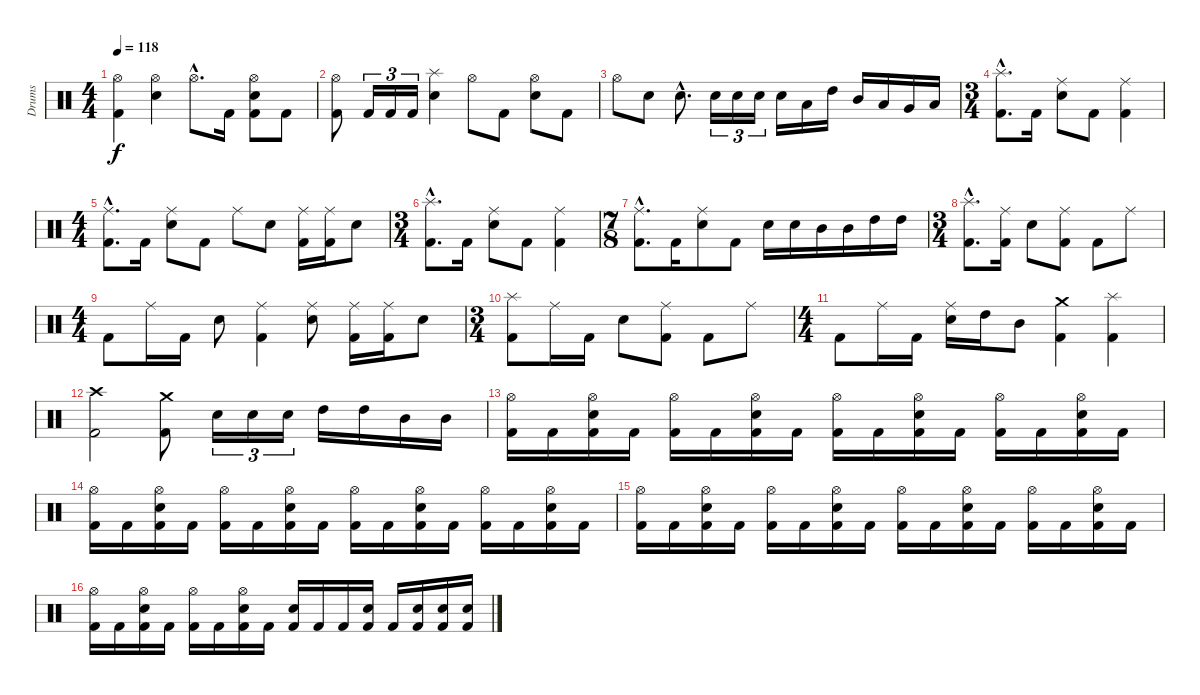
\track ("Drums" "Drums") {instrument percussion}
\staff {score}
\articulation defaults
\ts (4 4)
\tempo 118
\clef neutral
\ks c
("Hi-Hat (open)" "Kick (hit) 2").4{dy f} ("Hi-Hat (open)" "Snare (hit) 2").4 "Hi-Hat (open)"{hac}.8{d} "Kick (hit) 2".16 ("Hi-Hat (open)" "Snare (hit) 2" "Kick (hit) 2").8 "Kick (hit) 2".8 |
("Hi-Hat (open)" "Kick (hit) 2").8 "Kick (hit) 2".16{tu (3 2)} "Kick (hit) 2".16{tu (3 2)} "Kick (hit) 2".16{tu (3 2)} ("Splash (hit)" "Snare (hit) 2").4 "Hi-Hat (open)".8 "Kick (hit) 2".8 ("Hi-Hat (open)" "Snare (hit) 2").8 "Kick (hit) 2".8 |
"Hi-Hat (open)".8 "Snare (hit) 2".8 "Snare (hit) 2"{hac}.8{d} "Snare (hit) 2".16{tu (3 2)} "Snare (hit) 2".16{tu (3 2)} "Snare (hit) 2".16{tu (3 2)} "Snare (hit) 2".16 "Low Tom (hit)".16 "High Tom (hit)".16 "Mid Tom (hit)".16 "Low Tom (hit)".16 "Very Low Tom (hit)".16 "Low Floor Tom (hit)".16 |
\ts (3 4)
("Splash (hit)"{hac} "Kick (hit) 2"{hac}).8{d} "Kick (hit) 2".16 ("Ride (middle)" "Snare (hit) 2").8 "Kick (hit) 2".8 ("Ride (middle)" "Kick (hit) 2").4 |
\ts (4 4)
("Ride (middle)"{hac} "Kick (hit) 2"{hac}).8{d} "Kick (hit) 2".16 ("Ride (middle)" "Snare (hit) 2").8 "Kick (hit) 2".8 "Ride (middle)".8 "Snare (hit) 2".8 ("Ride (middle)" "Kick (hit) 2").16 ("Ride (middle)" "Kick (hit) 2").16 "Snare (hit) 2".8 |
\ts (3 4)
("Splash (hit)"{hac} "Kick (hit) 2"{hac}).8{d} "Kick (hit) 2".16 ("Ride (middle)" "Snare (hit) 2").8 "Kick (hit) 2".8 ("Ride (middle)" "Kick (hit) 2").4 |
\ts (7 8)
("Ride (middle)"{hac} "Kick (hit) 2"{hac}).8{d} "Kick (hit) 2".16 ("Ride (middle)" "Snare (hit) 2").8 "Kick (hit) 2".8 "Snare (hit) 2".16 "Snare (hit) 2".16 "Mid Tom (hit)".16 "Mid Tom (hit)".16 "High Tom (hit)".16 "High Tom (hit)".16 |
\ts (3 4)
("Splash (hit)"{hac} "Kick (hit) 2"{hac}).8{d} ("Ride (middle)" "Kick (hit) 2").16 "Snare (hit) 2".8 ("Ride (middle)" "Kick (hit) 2").8 "Kick (hit) 2".8 "Ride (middle)".8 |
\ts (4 4)
"Kick (hit) 2".8 "Ride (middle)".16 "Kick (hit) 2".16 "Snare (hit) 2".8 ("Ride (middle)" "Kick (hit) 2").4 ("Ride (middle)" "Snare (hit) 2").8 ("Ride (middle)" "Kick (hit) 2").16 ("Ride (middle)" "Kick (hit) 2").16 "Snare (hit) 2".8 |
\ts (3 4)
("Splash (hit)" "Kick (hit) 2").8 "Ride (middle)".16 "Kick (hit) 2".16 "Snare (hit) 2".8 ("Ride (middle)" "Kick (hit) 2").8 "Kick (hit) 2".8 "Ride (middle)".8 |
\ts (4 4)
"Kick (hit) 2".8 "Ride (middle)".16 "Kick (hit) 2".16 ("Ride (middle)" "Snare (hit) 2").16 "High Tom (hit)".16 "Mid Tom (hit)".8 ("Crash medium (hit)" "Kick (hit) 2").4 ("Splash (hit)" "Kick (hit) 2").4 |
("Crash high (hit)" "Kick (hit) 2").2 ("Crash medium (hit)" "Kick (hit) 2").8 "Snare (hit) 2".16{tu (3 2)} "Snare (hit) 2".16{tu (3 2)} "Snare (hit) 2".16{tu (3 2)} "High Tom (hit)".16 "High Tom (hit)".16 "Mid Tom (hit)".16 "Mid Tom (hit)".16 |
("Hi-Hat (open)" "Kick (hit) 2").16 "Kick (hit) 2".16 ("Hi-Hat (open)" "Snare (hit) 2" "Kick (hit) 2").16 "Kick (hit) 2".16 ("Hi-Hat (open)" "Kick (hit) 2").16 "Kick (hit) 2".16 ("Hi-Hat (open)" "Snare (hit) 2" "Kick (hit) 2").16 "Kick (hit) 2".16 ("Hi-Hat (open)" "Kick (hit) 2").16 "Kick (hit) 2".16 ("Hi-Hat (open)" "Snare (hit) 2" "Kick (hit) 2").16 "Kick (hit) 2".16 ("Hi-Hat (open)" "Kick (hit) 2").16 "Kick (hit) 2".16 ("Hi-Hat (open)" "Snare (hit) 2" "Kick (hit) 2").16 "Kick (hit) 2".16 |
("Hi-Hat (open)" "Kick (hit) 2").16 "Kick (hit) 2".16 ("Hi-Hat (open)" "Snare (hit) 2" "Kick (hit) 2").16 "Kick (hit) 2".16 ("Hi-Hat (open)" "Kick (hit) 2").16 "Kick (hit) 2".16 ("Hi-Hat (open)" "Snare (hit) 2" "Kick (hit) 2").16 "Kick (hit) 2".16 ("Hi-Hat (open)" "Kick (hit) 2").16 "Kick (hit) 2".16 ("Hi-Hat (open)" "Snare (hit) 2" "Kick (hit) 2").16 "Kick (hit) 2".16 ("Hi-Hat (open)" "Kick (hit) 2").16 "Kick (hit) 2".16 ("Hi-Hat (open)" "Snare (hit) 2" "Kick (hit) 2").16 "Kick (hit) 2".16 |
("Hi-Hat (open)" "Kick (hit) 2").16 "Kick (hit) 2".16 ("Hi-Hat (open)" "Snare (hit) 2" "Kick (hit) 2").16 "Kick (hit) 2".16 ("Hi-Hat (open)" "Kick (hit) 2").16 "Kick (hit) 2".16 ("Hi-Hat (open)" "Snare (hit) 2" "Kick (hit) 2").16 "Kick (hit) 2".16 ("Hi-Hat (open)" "Kick (hit) 2").16 "Kick (hit) 2".16 ("Hi-Hat (open)" "Snare (hit) 2" "Kick (hit) 2").16 "Kick (hit) 2".16 ("Hi-Hat (open)" "Kick (hit) 2").16 "Kick (hit) 2".16 ("Hi-Hat (open)" "Snare (hit) 2" "Kick (hit) 2").16 "Kick (hit) 2".16 |
("Hi-Hat (open)" "Kick (hit) 2").16 "Kick (hit) 2".16 ("Hi-Hat (open)" "Snare (hit) 2" "Kick (hit) 2").16 "Kick (hit) 2".16 ("Hi-Hat (open)" "Kick (hit) 2").16 "Kick (hit) 2".16 ("Hi-Hat (open)" "Snare (hit) 2" "Kick (hit) 2").16 "Kick (hit) 2".16 ("Snare (hit) 2" "Kick (hit) 2").16 "Kick (hit) 2".16 "Kick (hit) 2".16 ("Snare (hit) 2" "Kick (hit) 2").16 "Kick (hit) 2".16 ("Snare (hit) 2" "Kick (hit) 2").16 ("Snare (hit) 2" "Kick (hit) 2").16 ("Snare (hit) 2" "Kick (hit) 2").16
